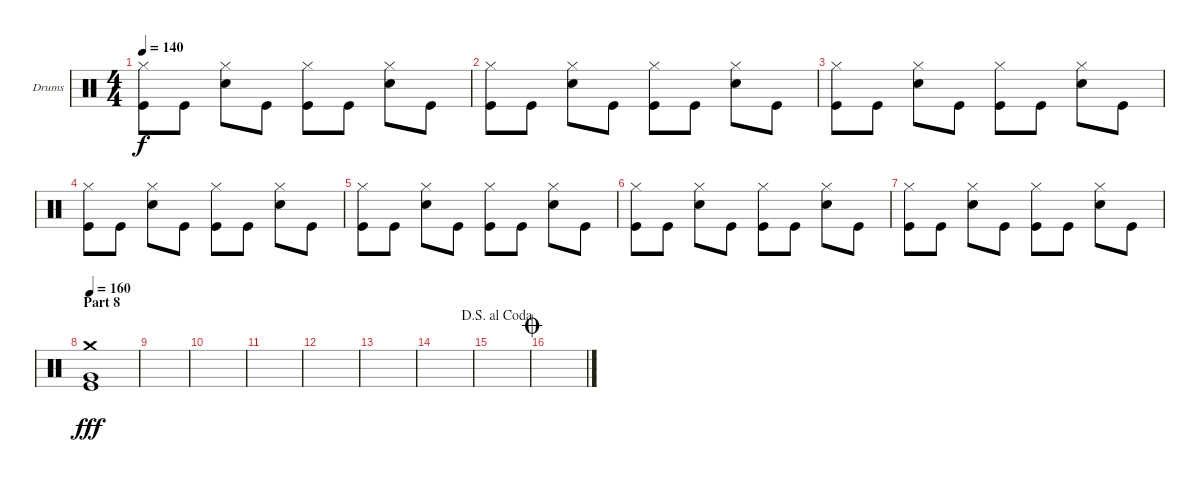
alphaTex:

\defaultSystemsLayout 4
\bracketExtendMode groupsimilarinstruments
\firstSystemTrackNameOrientation horizontal
\otherSystemsTrackNameOrientation horizontal
\track ("Drumkit" "Drums") {instrument percussion}
\staff {score}
\articulation defaults
\ts (4 4)
\tempo 140
\clef neutral
\ks aminor
("Kick (hit)" "Hi-Hat (closed)").8{dy f} "Kick (hit)".8 ("Snare (hit) 2" "Hi-Hat (closed)").8 "Kick (hit)".8 ("Kick (hit)" "Hi-Hat (closed)").8 "Kick (hit)".8 ("Snare (hit) 2" "Hi-Hat (closed)").8 "Kick (hit)".8 |
("Kick (hit)" "Hi-Hat (closed)").8 "Kick (hit)".8 ("Snare (hit) 2" "Hi-Hat (closed)").8 "Kick (hit)".8 ("Kick (hit)" "Hi-Hat (closed)").8 "Kick (hit)".8 ("Snare (hit) 2" "Hi-Hat (closed)").8 "Kick (hit)".8 |
("Kick (hit)" "Hi-Hat (closed)").8 "Kick (hit)".8 ("Snare (hit) 2" "Hi-Hat (closed)").8 "Kick (hit)".8 ("Kick (hit)" "Hi-Hat (closed)").8 "Kick (hit)".8 ("Snare (hit) 2" "Hi-Hat (closed)").8 "Kick (hit)".8 |
("Kick (hit)" "Hi-Hat (closed)").8 "Kick (hit)".8 ("Snare (hit) 2" "Hi-Hat (closed)").8 "Kick (hit)".8 ("Kick (hit)" "Hi-Hat (closed)").8 "Kick (hit)".8 ("Snare (hit) 2" "Hi-Hat (closed)").8 "Kick (hit)".8 |
("Kick (hit)" "Hi-Hat (closed)").8 "Kick (hit)".8 ("Snare (hit) 2" "Hi-Hat (closed)").8 "Kick (hit)".8 ("Kick (hit)" "Hi-Hat (closed)").8 "Kick (hit)".8 ("Snare (hit) 2" "Hi-Hat (closed)").8 "Kick (hit)".8 |
("Kick (hit)" "Hi-Hat (closed)").8 "Kick (hit)".8 ("Snare (hit) 2" "Hi-Hat (closed)").8 "Kick (hit)".8 ("Kick (hit)" "Hi-Hat (closed)").8 "Kick (hit)".8 ("Snare (hit) 2" "Hi-Hat (closed)").8 "Kick (hit)".8 |
("Kick (hit)" "Hi-Hat (closed)").8 "Kick (hit)".8 ("Snare (hit) 2" "Hi-Hat (closed)").8 "Kick (hit)".8 ("Kick (hit)" "Hi-Hat (closed)").8 "Kick (hit)".8 ("Snare (hit) 2" "Hi-Hat (closed)").8 "Kick (hit)".8 |
\section ("" "Part 8")
\tempo 160
("Kick (hit)" "Very Low Tom (hit)" "Crash medium (hit)").1{dy fff} |
|
|
|
|
|
|
\jump dalsegnoalcoda
|
\jump coda
